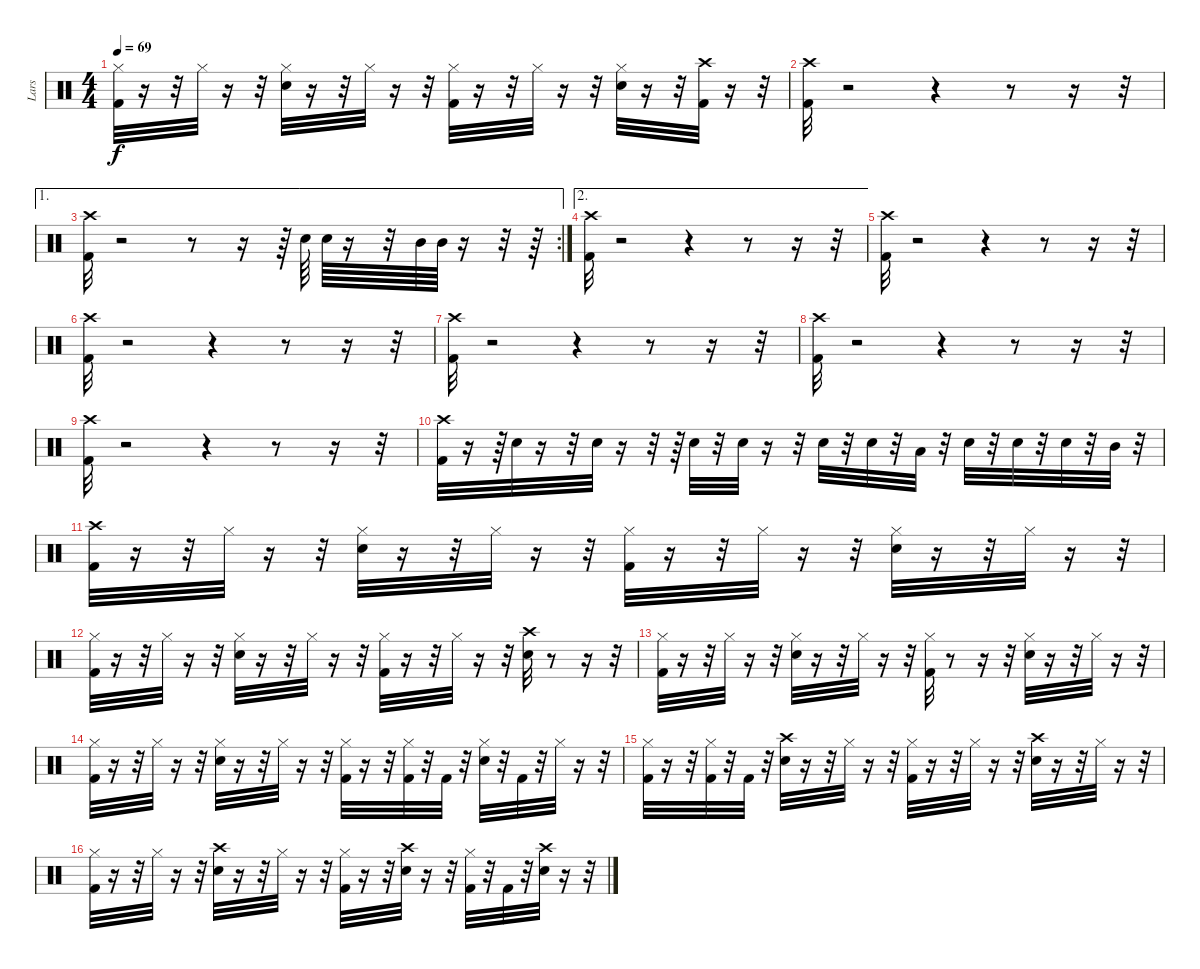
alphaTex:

\track ("Lars" "Lars") {instrument percussion}
\staff {score}
\articulation defaults
\ts (4 4)
\tempo 69
\clef neutral
\ks c
("Hi-Hat (closed)" "Kick (hit) 2").32{dy f} r.16 r.32 "Hi-Hat (closed)".32 r.16 r.32 ("Snare (hit) 2" "Hi-Hat (closed)").32 r.16 r.32 "Hi-Hat (closed)".32 r.16 r.32 ("Hi-Hat (closed)" "Kick (hit) 2").32 r.16 r.32 "Hi-Hat (closed)".32 r.16 r.32 ("Snare (hit) 2" "Hi-Hat (closed)").32 r.16 r.32 ("Crash high (hit)" "Kick (hit) 2").32 r.16 r.32 |
("Kick (hit) 2" "Crash high (hit)").32 r.2 r.4 r.8 r.16 r.32 |
\ae 1
\rc 2
("Kick (hit) 2" "Crash high (hit)").32 r.2 r.8 r.16 r.64 "Snare (hit) 2".64 "Snare (hit) 2".64 r.16 r.32 "Mid Tom (hit)".64 "Mid Tom (hit)".64 r.16 r.32 r.64 |
\ae 2
("Kick (hit) 2" "Crash high (hit)").32 r.2 r.4 r.8 r.16 r.32 |
("Kick (hit) 2" "Crash high (hit)").32 r.2 r.4 r.8 r.16 r.32 |
("Kick (hit) 2" "Crash high (hit)").32 r.2 r.4 r.8 r.16 r.32 |
("Kick (hit) 2" "Crash high (hit)").32 r.2 r.4 r.8 r.16 r.32 |
("Kick (hit) 2" "Crash high (hit)").32 r.2 r.4 r.8 r.16 r.32 |
("Kick (hit) 2" "Crash high (hit)").32 r.2 r.4 r.8 r.16 r.32 |
("Kick (hit) 2" "Crash high (hit)").32 r.16 r.64 "Snare (hit) 2".32 r.16 r.32 "Snare (hit) 2".32 r.16 r.32 r.64 "Snare (hit) 2".32 r.32 "Snare (hit) 2".32 r.16 r.32 "Snare (hit) 2".32 r.32 "Snare (hit) 2".32 r.32 "Low Tom (hit)".32 r.32 "Snare (hit) 2".32 r.32 "Snare (hit) 2".32 r.32 "Snare (hit) 2".32 r.32 "Mid Tom (hit)".32 r.32 |
("Kick (hit) 2" "Crash high (hit)").32 r.16 r.32 "Hi-Hat (closed)".32 r.16 r.32 ("Snare (hit) 2" "Hi-Hat (closed)").32 r.16 r.32 "Hi-Hat (closed)".32 r.16 r.32 ("Hi-Hat (closed)" "Kick (hit) 2").32 r.16 r.32 "Hi-Hat (closed)".32 r.16 r.32 ("Snare (hit) 2" "Hi-Hat (closed)").32 r.16 r.32 "Hi-Hat (closed)".32 r.16 r.32 |
("Kick (hit) 2" "Hi-Hat (closed)").32 r.16 r.32 "Hi-Hat (closed)".32 r.16 r.32 ("Snare (hit) 2" "Hi-Hat (closed)").32 r.16 r.32 "Hi-Hat (closed)".32 r.16 r.32 ("Hi-Hat (closed)" "Kick (hit) 2").32 r.16 r.32 "Hi-Hat (closed)".32 r.16 r.32 ("Crash high (hit)" "Snare (hit) 2").32 r.8 r.16 r.32 |
("Kick (hit) 2" "Hi-Hat (closed)").32 r.16 r.32 "Hi-Hat (closed)".32 r.16 r.32 ("Snare (hit) 2" "Hi-Hat (closed)").32 r.16 r.32 "Hi-Hat (closed)".32 r.16 r.32 ("Kick (hit) 2" "Hi-Hat (closed)").32 r.8 r.16 r.32 ("Snare (hit) 2" "Hi-Hat (closed)").32 r.16 r.32 "Hi-Hat (closed)".32 r.16 r.32 |
("Hi-Hat (closed)" "Kick (hit) 2").32 r.16 r.32 "Hi-Hat (closed)".32 r.16 r.32 ("Snare (hit) 2" "Hi-Hat (closed)").32 r.16 r.32 "Hi-Hat (closed)".32 r.16 r.32 ("Hi-Hat (closed)" "Kick (hit) 2").32 r.16 r.32 ("Hi-Hat (closed)" "Kick (hit) 2").32 r.32 "Kick (hit) 2".32 r.32 ("Snare (hit) 2" "Hi-Hat (closed)").32 r.32 "Kick (hit) 2".32 r.32 "Hi-Hat (closed)".32 r.16 r.32 |
("Kick (hit) 2" "Hi-Hat (closed)").32 r.16 r.32 ("Kick (hit) 2" "Hi-Hat (closed)").32 r.32 "Kick (hit) 2".32 r.32 ("Crash high (hit)" "Snare (hit) 2").32 r.16 r.32 "Hi-Hat (closed)".32 r.16 r.32 ("Hi-Hat (closed)" "Kick (hit) 2").32 r.16 r.32 "Hi-Hat (closed)".32 r.16 r.32 ("Crash high (hit)" "Snare (hit) 2").32 r.16 r.32 "Hi-Hat (closed)".32 r.16 r.32 |
("Kick (hit) 2" "Hi-Hat (closed)").32 r.16 r.32 "Hi-Hat (closed)".32 r.16 r.32 ("Crash high (hit)" "Snare (hit) 2").32 r.16 r.32 "Hi-Hat (closed)".32 r.16 r.32 ("Hi-Hat (closed)" "Kick (hit) 2").32 r.16 r.32 ("Crash high (hit)" "Snare (hit) 2").32 r.16 r.32 ("Hi-Hat (closed)" "Kick (hit) 2").32 r.32 "Kick (hit) 2".32 r.32 ("Crash high (hit)" "Snare (hit) 2").32 r.16 r.32
